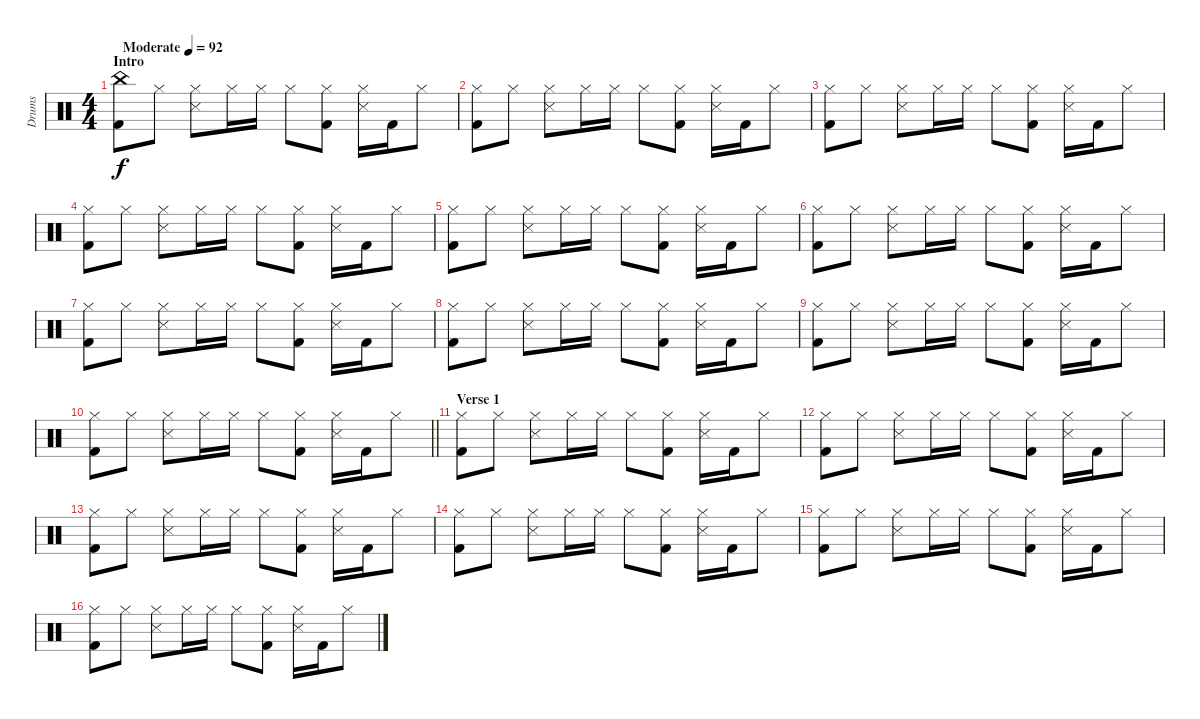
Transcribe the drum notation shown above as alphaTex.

\track ("Drums" "Drums") {instrument percussion}
\staff {score}
\articulation defaults
\ts (4 4)
\section ("" "Intro")
\tempo (92 "Moderate")
\clef neutral
\ks c
("China (hit)" "Kick (hit) 2").8{dy f} "Hi-Hat (closed)".8 ("Hi-Hat (closed)" "Snare (side stick) 3").8 "Hi-Hat (closed)".16 "Hi-Hat (closed)".16 "Hi-Hat (closed)".8 ("Hi-Hat (closed)" "Kick (hit) 2").8 ("Hi-Hat (closed)" "Snare (side stick) 3").16 "Kick (hit) 2".16 "Hi-Hat (closed)".8 |
("Hi-Hat (closed)" "Kick (hit) 2").8 "Hi-Hat (closed)".8 ("Hi-Hat (closed)" "Snare (side stick) 3").8 "Hi-Hat (closed)".16 "Hi-Hat (closed)".16 "Hi-Hat (closed)".8 ("Hi-Hat (closed)" "Kick (hit) 2").8 ("Hi-Hat (closed)" "Snare (side stick) 3").16 "Kick (hit) 2".16 "Hi-Hat (closed)".8 |
("Hi-Hat (closed)" "Kick (hit) 2").8 "Hi-Hat (closed)".8 ("Hi-Hat (closed)" "Snare (side stick) 3").8 "Hi-Hat (closed)".16 "Hi-Hat (closed)".16 "Hi-Hat (closed)".8 ("Hi-Hat (closed)" "Kick (hit) 2").8 ("Hi-Hat (closed)" "Snare (side stick) 3").16 "Kick (hit) 2".16 "Hi-Hat (closed)".8 |
("Hi-Hat (closed)" "Kick (hit) 2").8 "Hi-Hat (closed)".8 ("Hi-Hat (closed)" "Snare (side stick) 3").8 "Hi-Hat (closed)".16 "Hi-Hat (closed)".16 "Hi-Hat (closed)".8 ("Hi-Hat (closed)" "Kick (hit) 2").8 ("Hi-Hat (closed)" "Snare (side stick) 3").16 "Kick (hit) 2".16 "Hi-Hat (closed)".8 |
("Hi-Hat (closed)" "Kick (hit) 2").8 "Hi-Hat (closed)".8 ("Hi-Hat (closed)" "Snare (side stick) 3").8 "Hi-Hat (closed)".16 "Hi-Hat (closed)".16 "Hi-Hat (closed)".8 ("Hi-Hat (closed)" "Kick (hit) 2").8 ("Hi-Hat (closed)" "Snare (side stick) 3").16 "Kick (hit) 2".16 "Hi-Hat (closed)".8 |
("Hi-Hat (closed)" "Kick (hit) 2").8 "Hi-Hat (closed)".8 ("Hi-Hat (closed)" "Snare (side stick) 3").8 "Hi-Hat (closed)".16 "Hi-Hat (closed)".16 "Hi-Hat (closed)".8 ("Hi-Hat (closed)" "Kick (hit) 2").8 ("Hi-Hat (closed)" "Snare (side stick) 3").16 "Kick (hit) 2".16 "Hi-Hat (closed)".8 |
("Hi-Hat (closed)" "Kick (hit) 2").8 "Hi-Hat (closed)".8 ("Hi-Hat (closed)" "Snare (side stick) 3").8 "Hi-Hat (closed)".16 "Hi-Hat (closed)".16 "Hi-Hat (closed)".8 ("Hi-Hat (closed)" "Kick (hit) 2").8 ("Hi-Hat (closed)" "Snare (side stick) 3").16 "Kick (hit) 2".16 "Hi-Hat (closed)".8 |
("Hi-Hat (closed)" "Kick (hit) 2").8 "Hi-Hat (closed)".8 ("Hi-Hat (closed)" "Snare (side stick) 3").8 "Hi-Hat (closed)".16 "Hi-Hat (closed)".16 "Hi-Hat (closed)".8 ("Hi-Hat (closed)" "Kick (hit) 2").8 ("Hi-Hat (closed)" "Snare (side stick) 3").16 "Kick (hit) 2".16 "Hi-Hat (closed)".8 |
("Hi-Hat (closed)" "Kick (hit) 2").8 "Hi-Hat (closed)".8 ("Hi-Hat (closed)" "Snare (side stick) 3").8 "Hi-Hat (closed)".16 "Hi-Hat (closed)".16 "Hi-Hat (closed)".8 ("Hi-Hat (closed)" "Kick (hit) 2").8 ("Hi-Hat (closed)" "Snare (side stick) 3").16 "Kick (hit) 2".16 "Hi-Hat (closed)".8 |
\barLineRight lightlight
("Hi-Hat (closed)" "Kick (hit) 2").8 "Hi-Hat (closed)".8 ("Hi-Hat (closed)" "Snare (side stick) 3").8 "Hi-Hat (closed)".16 "Hi-Hat (closed)".16 "Hi-Hat (closed)".8 ("Hi-Hat (closed)" "Kick (hit) 2").8 ("Hi-Hat (closed)" "Snare (side stick) 3").16 "Kick (hit) 2".16 "Hi-Hat (closed)".8 |
\section ("" "Verse 1")
("Hi-Hat (closed)" "Kick (hit) 2").8 "Hi-Hat (closed)".8 ("Hi-Hat (closed)" "Snare (side stick) 3").8 "Hi-Hat (closed)".16 "Hi-Hat (closed)".16 "Hi-Hat (closed)".8 ("Hi-Hat (closed)" "Kick (hit) 2").8 ("Hi-Hat (closed)" "Snare (side stick) 3").16 "Kick (hit) 2".16 "Hi-Hat (closed)".8 |
("Hi-Hat (closed)" "Kick (hit) 2").8 "Hi-Hat (closed)".8 ("Hi-Hat (closed)" "Snare (side stick) 3").8 "Hi-Hat (closed)".16 "Hi-Hat (closed)".16 "Hi-Hat (closed)".8 ("Hi-Hat (closed)" "Kick (hit) 2").8 ("Hi-Hat (closed)" "Snare (side stick) 3").16 "Kick (hit) 2".16 "Hi-Hat (closed)".8 |
("Hi-Hat (closed)" "Kick (hit) 2").8 "Hi-Hat (closed)".8 ("Hi-Hat (closed)" "Snare (side stick) 3").8 "Hi-Hat (closed)".16 "Hi-Hat (closed)".16 "Hi-Hat (closed)".8 ("Hi-Hat (closed)" "Kick (hit) 2").8 ("Hi-Hat (closed)" "Snare (side stick) 3").16 "Kick (hit) 2".16 "Hi-Hat (closed)".8 |
("Hi-Hat (closed)" "Kick (hit) 2").8 "Hi-Hat (closed)".8 ("Hi-Hat (closed)" "Snare (side stick) 3").8 "Hi-Hat (closed)".16 "Hi-Hat (closed)".16 "Hi-Hat (closed)".8 ("Hi-Hat (closed)" "Kick (hit) 2").8 ("Hi-Hat (closed)" "Snare (side stick) 3").16 "Kick (hit) 2".16 "Hi-Hat (closed)".8 |
("Hi-Hat (closed)" "Kick (hit) 2").8 "Hi-Hat (closed)".8 ("Hi-Hat (closed)" "Snare (side stick) 3").8 "Hi-Hat (closed)".16 "Hi-Hat (closed)".16 "Hi-Hat (closed)".8 ("Hi-Hat (closed)" "Kick (hit) 2").8 ("Hi-Hat (closed)" "Snare (side stick) 3").16 "Kick (hit) 2".16 "Hi-Hat (closed)".8 |
("Hi-Hat (closed)" "Kick (hit) 2").8 "Hi-Hat (closed)".8 ("Hi-Hat (closed)" "Snare (side stick) 3").8 "Hi-Hat (closed)".16 "Hi-Hat (closed)".16 "Hi-Hat (closed)".8 ("Hi-Hat (closed)" "Kick (hit) 2").8 ("Hi-Hat (closed)" "Snare (side stick) 3").16 "Kick (hit) 2".16 "Hi-Hat (closed)".8
